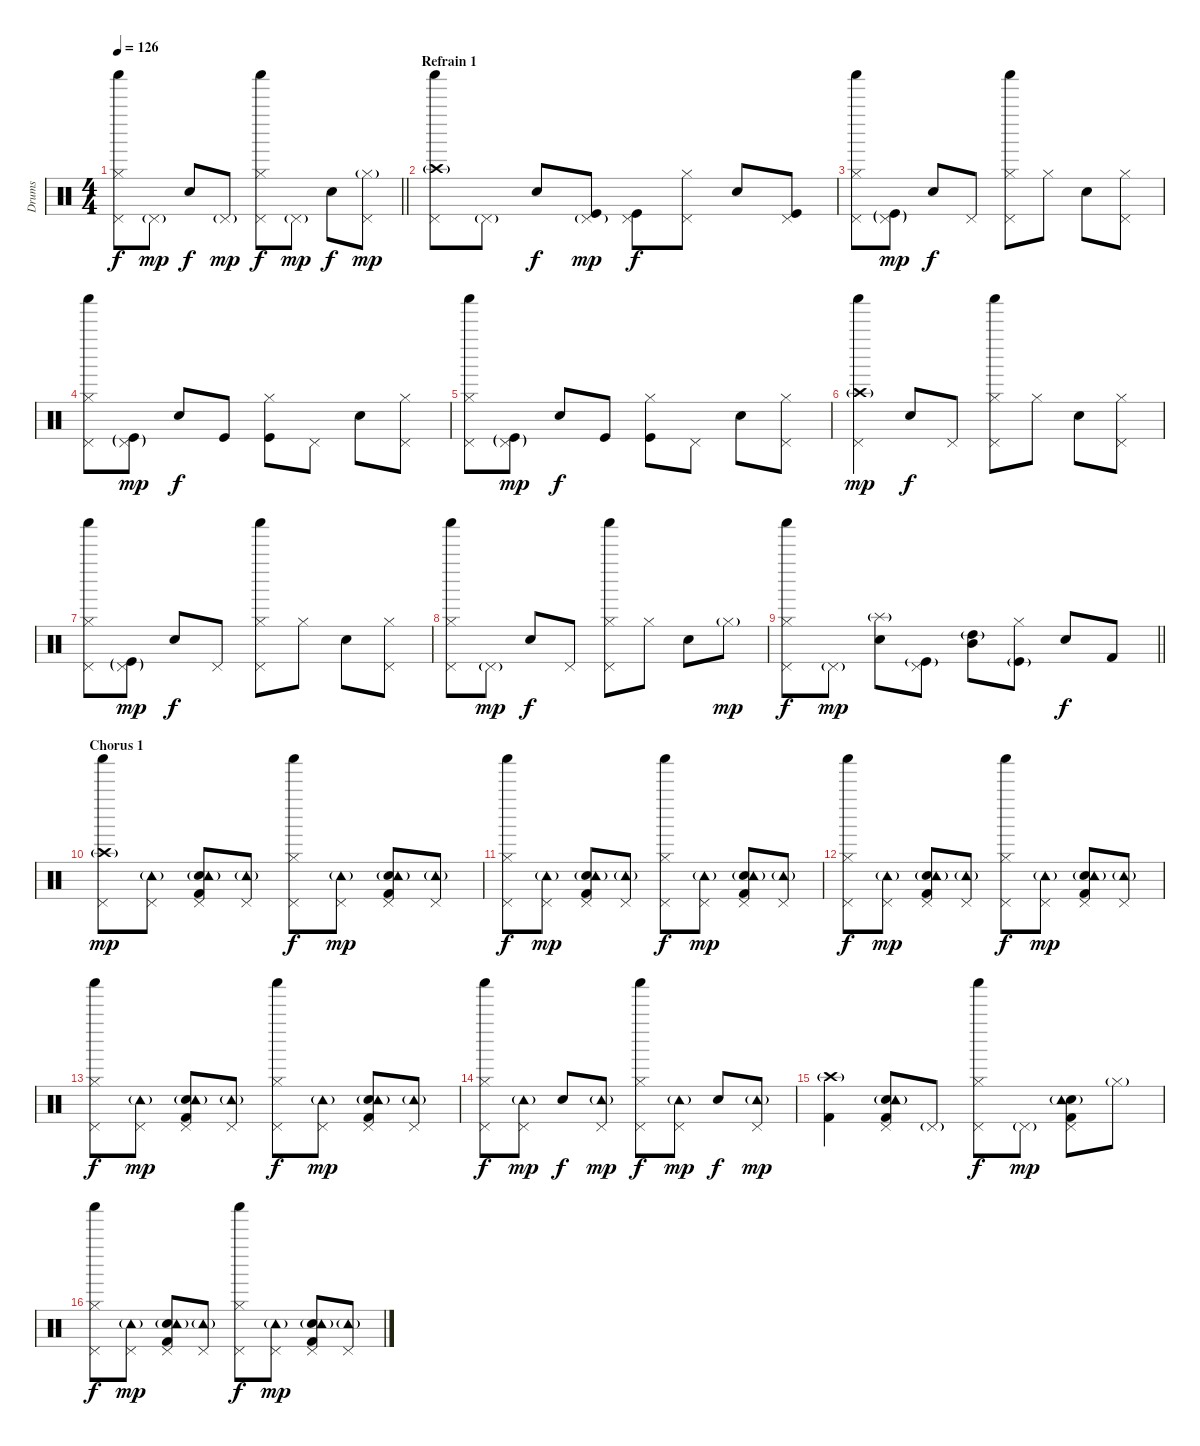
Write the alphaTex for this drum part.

\track ("Drums" "Drums") {instrument percussion}
\staff {score}
\articulation defaults
\ts (4 4)
\tempo 126
\clef neutral
\barLineRight lightlight
\ks c
("Hi-Hat (closed)" "Pedal Hi-Hat (hit)" "Shaker (hit)").8{dy f} "Pedal Hi-Hat (hit)"{g}.8{dy mp} "Electric Snare (hit)".8{dy f} "Pedal Hi-Hat (hit)"{g}.8{dy mp} ("Hi-Hat (closed)" "Pedal Hi-Hat (hit)" "Shaker (hit)").8{dy f} "Pedal Hi-Hat (hit)"{g}.8{dy mp} "Electric Snare (hit)".8{dy f} ("Hi-Hat (closed)"{g} "Pedal Hi-Hat (hit)").8{dy mp} |
\section ("" "Refrain 1")
("Crash high (hit)"{g} "Pedal Hi-Hat (hit)" "Shaker (hit)").8 "Pedal Hi-Hat (hit)"{g}.8 "Electric Snare (hit)".8{dy f} ("Pedal Hi-Hat (hit)"{g} "Kick (hit)").8{dy mp} ("Pedal Hi-Hat (hit)" "Kick (hit)").8{dy f} ("Hi-Hat (closed)" "Pedal Hi-Hat (hit)").8 "Electric Snare (hit)".8 ("Pedal Hi-Hat (hit)" "Kick (hit)").8 |
("Hi-Hat (closed)" "Pedal Hi-Hat (hit)" "Shaker (hit)").8 ("Pedal Hi-Hat (hit)"{g} "Kick (hit)"{g}).8{dy mp} "Electric Snare (hit)".8{dy f} "Pedal Hi-Hat (hit)".8 ("Hi-Hat (closed)" "Pedal Hi-Hat (hit)" "Shaker (hit)").8 "Hi-Hat (closed)".8 "Electric Snare (hit)".8 ("Hi-Hat (closed)" "Pedal Hi-Hat (hit)").8 |
("Hi-Hat (closed)" "Pedal Hi-Hat (hit)" "Shaker (hit)").8 ("Pedal Hi-Hat (hit)"{g} "Kick (hit)"{g}).8{dy mp} "Electric Snare (hit)".8{dy f} "Kick (hit)".8 ("Hi-Hat (closed)" "Kick (hit)").8 "Pedal Hi-Hat (hit)".8 "Electric Snare (hit)".8 ("Hi-Hat (closed)" "Pedal Hi-Hat (hit)").8 |
("Hi-Hat (closed)" "Pedal Hi-Hat (hit)" "Shaker (hit)").8 ("Pedal Hi-Hat (hit)"{g} "Kick (hit)"{g}).8{dy mp} "Electric Snare (hit)".8{dy f} "Kick (hit)".8 ("Hi-Hat (closed)" "Kick (hit)").8 "Pedal Hi-Hat (hit)".8 "Electric Snare (hit)".8 ("Hi-Hat (closed)" "Pedal Hi-Hat (hit)").8 |
("Crash high (hit)"{g} "Pedal Hi-Hat (hit)" "Shaker (hit)").4{dy mp} "Electric Snare (hit)".8{dy f} "Pedal Hi-Hat (hit)".8 ("Hi-Hat (closed)" "Pedal Hi-Hat (hit)" "Shaker (hit)").8 "Hi-Hat (closed)".8 "Electric Snare (hit)".8 ("Hi-Hat (closed)" "Pedal Hi-Hat (hit)").8 |
("Hi-Hat (closed)" "Pedal Hi-Hat (hit)" "Shaker (hit)").8 ("Pedal Hi-Hat (hit)"{g} "Kick (hit)"{g}).8{dy mp} "Electric Snare (hit)".8{dy f} "Pedal Hi-Hat (hit)".8 ("Hi-Hat (closed)" "Pedal Hi-Hat (hit)" "Shaker (hit)").8 "Hi-Hat (closed)".8 "Electric Snare (hit)".8 ("Hi-Hat (closed)" "Pedal Hi-Hat (hit)").8 |
("Hi-Hat (closed)" "Pedal Hi-Hat (hit)" "Shaker (hit)").8 "Pedal Hi-Hat (hit)"{g}.8{dy mp} "Electric Snare (hit)".8{dy f} "Pedal Hi-Hat (hit)".8 ("Hi-Hat (closed)" "Pedal Hi-Hat (hit)" "Shaker (hit)").8 "Hi-Hat (closed)".8 "Electric Snare (hit)".8 "Hi-Hat (closed)"{g}.8{dy mp} |
\barLineRight lightlight
("Hi-Hat (closed)" "Pedal Hi-Hat (hit)" "Shaker (hit)").8{dy f} "Pedal Hi-Hat (hit)"{g}.8{dy mp} ("Electric Snare (hit)" "Splash (hit)"{g}).8 ("Pedal Hi-Hat (hit)" "Kick (hit)"{g}).8 ("Mid Tom (hit)" "High Tom (hit)"{g}).8 ("Hi-Hat (closed)" "Kick (hit)"{g}).8 "Electric Snare (hit)".8{dy f} "Kick (hit) 2".8 |
\section ("" "Chorus 1")
("Crash high (hit)"{g} "Pedal Hi-Hat (hit)" "Shaker (hit)").8{dy mp} ("Pedal Hi-Hat (hit)" "Tambourine (hit)"{g}).8 ("Pedal Hi-Hat (hit)" "Electric Snare (hit)" "Kick (hit) 2" "Tambourine (hit)"{g}).8 ("Pedal Hi-Hat (hit)" "Tambourine (hit)"{g}).8 ("Hi-Hat (closed)" "Pedal Hi-Hat (hit)" "Shaker (hit)").8{dy f} ("Pedal Hi-Hat (hit)" "Tambourine (hit)"{g}).8{dy mp} ("Pedal Hi-Hat (hit)" "Electric Snare (hit)" "Kick (hit) 2" "Tambourine (hit)"{g}).8 ("Pedal Hi-Hat (hit)" "Tambourine (hit)"{g}).8 |
("Hi-Hat (closed)" "Pedal Hi-Hat (hit)" "Shaker (hit)").8{dy f} ("Pedal Hi-Hat (hit)" "Tambourine (hit)"{g}).8{dy mp} ("Pedal Hi-Hat (hit)" "Electric Snare (hit)" "Kick (hit) 2" "Tambourine (hit)"{g}).8 ("Pedal Hi-Hat (hit)" "Tambourine (hit)"{g}).8 ("Hi-Hat (closed)" "Pedal Hi-Hat (hit)" "Shaker (hit)").8{dy f} ("Pedal Hi-Hat (hit)" "Tambourine (hit)"{g}).8{dy mp} ("Pedal Hi-Hat (hit)" "Electric Snare (hit)" "Kick (hit) 2" "Tambourine (hit)"{g}).8 ("Pedal Hi-Hat (hit)" "Tambourine (hit)"{g}).8 |
("Hi-Hat (closed)" "Pedal Hi-Hat (hit)" "Shaker (hit)").8{dy f} ("Pedal Hi-Hat (hit)" "Tambourine (hit)"{g}).8{dy mp} ("Pedal Hi-Hat (hit)" "Electric Snare (hit)" "Kick (hit) 2" "Tambourine (hit)"{g}).8 ("Pedal Hi-Hat (hit)" "Tambourine (hit)"{g}).8 ("Hi-Hat (closed)" "Pedal Hi-Hat (hit)" "Shaker (hit)").8{dy f} ("Pedal Hi-Hat (hit)" "Tambourine (hit)"{g}).8{dy mp} ("Pedal Hi-Hat (hit)" "Electric Snare (hit)" "Kick (hit) 2" "Tambourine (hit)"{g}).8 ("Pedal Hi-Hat (hit)" "Tambourine (hit)"{g}).8 |
("Hi-Hat (closed)" "Pedal Hi-Hat (hit)" "Shaker (hit)").8{dy f} ("Pedal Hi-Hat (hit)" "Tambourine (hit)"{g}).8{dy mp} ("Pedal Hi-Hat (hit)" "Electric Snare (hit)" "Kick (hit) 2" "Tambourine (hit)"{g}).8 ("Pedal Hi-Hat (hit)" "Tambourine (hit)"{g}).8 ("Hi-Hat (closed)" "Pedal Hi-Hat (hit)" "Shaker (hit)").8{dy f} ("Pedal Hi-Hat (hit)" "Tambourine (hit)"{g}).8{dy mp} ("Pedal Hi-Hat (hit)" "Electric Snare (hit)" "Kick (hit) 2" "Tambourine (hit)"{g}).8 ("Pedal Hi-Hat (hit)" "Tambourine (hit)"{g}).8 |
("Hi-Hat (closed)" "Pedal Hi-Hat (hit)" "Shaker (hit)").8{dy f} ("Pedal Hi-Hat (hit)" "Tambourine (hit)"{g}).8{dy mp} "Electric Snare (hit)".8{dy f} ("Pedal Hi-Hat (hit)" "Tambourine (hit)"{g}).8{dy mp} ("Hi-Hat (closed)" "Pedal Hi-Hat (hit)" "Shaker (hit)").8{dy f} ("Pedal Hi-Hat (hit)" "Tambourine (hit)"{g}).8{dy mp} "Electric Snare (hit)".8{dy f} ("Pedal Hi-Hat (hit)" "Tambourine (hit)"{g}).8{dy mp} |
("Crash high (hit)"{g} "Kick (hit) 2").4 ("Pedal Hi-Hat (hit)" "Electric Snare (hit)" "Kick (hit) 2" "Tambourine (hit)"{g}).8 "Pedal Hi-Hat (hit)"{g}.8 ("Hi-Hat (closed)" "Pedal Hi-Hat (hit)" "Shaker (hit)").8{dy f} "Pedal Hi-Hat (hit)"{g}.8{dy mp} ("Pedal Hi-Hat (hit)" "Electric Snare (hit)" "Kick (hit) 2" "Tambourine (hit)"{g}).8 "Hi-Hat (closed)"{g}.8 |
("Hi-Hat (closed)" "Pedal Hi-Hat (hit)" "Shaker (hit)").8{dy f} ("Pedal Hi-Hat (hit)" "Tambourine (hit)"{g}).8{dy mp} ("Pedal Hi-Hat (hit)" "Electric Snare (hit)" "Kick (hit) 2" "Tambourine (hit)"{g}).8 ("Pedal Hi-Hat (hit)" "Tambourine (hit)"{g}).8 ("Hi-Hat (closed)" "Pedal Hi-Hat (hit)" "Shaker (hit)").8{dy f} ("Pedal Hi-Hat (hit)" "Tambourine (hit)"{g}).8{dy mp} ("Pedal Hi-Hat (hit)" "Electric Snare (hit)" "Kick (hit) 2" "Tambourine (hit)"{g}).8 ("Pedal Hi-Hat (hit)" "Tambourine (hit)"{g}).8
